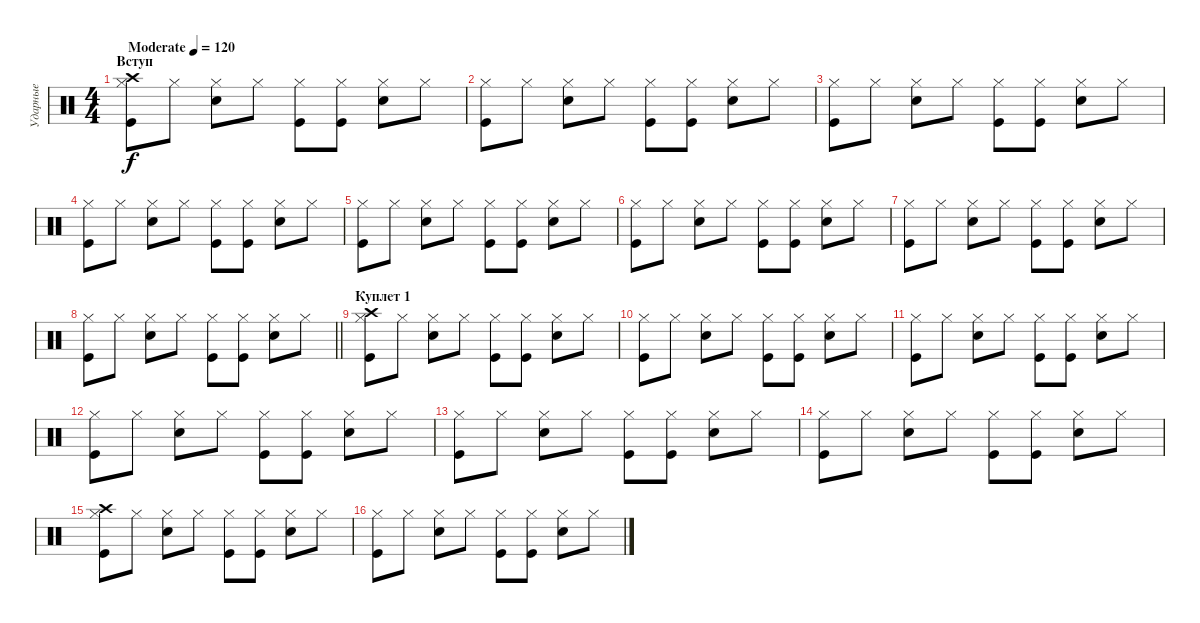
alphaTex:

\track ("Ударные" "Ударные") {instrument percussion}
\staff {score}
\articulation defaults
\ts (4 4)
\section ("" "Вступ")
\tempo (120 "Moderate")
\clef neutral
\ks c
("Hi-Hat (closed)" "Kick (hit)" "Crash high (hit)").8{dy f} "Hi-Hat (closed)".8 ("Hi-Hat (closed)" "Snare (hit) 2").8 "Hi-Hat (closed)".8 ("Hi-Hat (closed)" "Kick (hit)").8 ("Hi-Hat (closed)" "Kick (hit)").8 ("Hi-Hat (closed)" "Snare (hit) 2").8 "Hi-Hat (closed)".8 |
("Hi-Hat (closed)" "Kick (hit)").8 "Hi-Hat (closed)".8 ("Hi-Hat (closed)" "Snare (hit) 2").8 "Hi-Hat (closed)".8 ("Hi-Hat (closed)" "Kick (hit)").8 ("Hi-Hat (closed)" "Kick (hit)").8 ("Hi-Hat (closed)" "Snare (hit) 2").8 "Hi-Hat (closed)".8 |
("Hi-Hat (closed)" "Kick (hit)").8 "Hi-Hat (closed)".8 ("Hi-Hat (closed)" "Snare (hit) 2").8 "Hi-Hat (closed)".8 ("Hi-Hat (closed)" "Kick (hit)").8 ("Hi-Hat (closed)" "Kick (hit)").8 ("Hi-Hat (closed)" "Snare (hit) 2").8 "Hi-Hat (closed)".8 |
("Hi-Hat (closed)" "Kick (hit)").8 "Hi-Hat (closed)".8 ("Hi-Hat (closed)" "Snare (hit) 2").8 "Hi-Hat (closed)".8 ("Hi-Hat (closed)" "Kick (hit)").8 ("Hi-Hat (closed)" "Kick (hit)").8 ("Hi-Hat (closed)" "Snare (hit) 2").8 "Hi-Hat (closed)".8 |
("Hi-Hat (closed)" "Kick (hit)").8 "Hi-Hat (closed)".8 ("Hi-Hat (closed)" "Snare (hit) 2").8 "Hi-Hat (closed)".8 ("Hi-Hat (closed)" "Kick (hit)").8 ("Hi-Hat (closed)" "Kick (hit)").8 ("Hi-Hat (closed)" "Snare (hit) 2").8 "Hi-Hat (closed)".8 |
("Hi-Hat (closed)" "Kick (hit)").8 "Hi-Hat (closed)".8 ("Hi-Hat (closed)" "Snare (hit) 2").8 "Hi-Hat (closed)".8 ("Hi-Hat (closed)" "Kick (hit)").8 ("Hi-Hat (closed)" "Kick (hit)").8 ("Hi-Hat (closed)" "Snare (hit) 2").8 "Hi-Hat (closed)".8 |
("Hi-Hat (closed)" "Kick (hit)").8 "Hi-Hat (closed)".8 ("Hi-Hat (closed)" "Snare (hit) 2").8 "Hi-Hat (closed)".8 ("Hi-Hat (closed)" "Kick (hit)").8 ("Hi-Hat (closed)" "Kick (hit)").8 ("Hi-Hat (closed)" "Snare (hit) 2").8 "Hi-Hat (closed)".8 |
\barLineRight lightlight
("Hi-Hat (closed)" "Kick (hit)").8 "Hi-Hat (closed)".8 ("Hi-Hat (closed)" "Snare (hit) 2").8 "Hi-Hat (closed)".8 ("Hi-Hat (closed)" "Kick (hit)").8 ("Hi-Hat (closed)" "Kick (hit)").8 ("Hi-Hat (closed)" "Snare (hit) 2").8 "Hi-Hat (closed)".8 |
\section ("" "Куплет 1")
("Hi-Hat (closed)" "Kick (hit)" "Crash high (hit)").8 "Hi-Hat (closed)".8 ("Hi-Hat (closed)" "Snare (hit) 2").8 "Hi-Hat (closed)".8 ("Hi-Hat (closed)" "Kick (hit)").8 ("Hi-Hat (closed)" "Kick (hit)").8 ("Hi-Hat (closed)" "Snare (hit) 2").8 "Hi-Hat (closed)".8 |
("Hi-Hat (closed)" "Kick (hit)").8 "Hi-Hat (closed)".8 ("Hi-Hat (closed)" "Snare (hit) 2").8 "Hi-Hat (closed)".8 ("Hi-Hat (closed)" "Kick (hit)").8 ("Hi-Hat (closed)" "Kick (hit)").8 ("Hi-Hat (closed)" "Snare (hit) 2").8 "Hi-Hat (closed)".8 |
("Hi-Hat (closed)" "Kick (hit)").8 "Hi-Hat (closed)".8 ("Hi-Hat (closed)" "Snare (hit) 2").8 "Hi-Hat (closed)".8 ("Hi-Hat (closed)" "Kick (hit)").8 ("Hi-Hat (closed)" "Kick (hit)").8 ("Hi-Hat (closed)" "Snare (hit) 2").8 "Hi-Hat (closed)".8 |
("Hi-Hat (closed)" "Kick (hit)").8 "Hi-Hat (closed)".8 ("Hi-Hat (closed)" "Snare (hit) 2").8 "Hi-Hat (closed)".8 ("Hi-Hat (closed)" "Kick (hit)").8 ("Hi-Hat (closed)" "Kick (hit)").8 ("Hi-Hat (closed)" "Snare (hit) 2").8 "Hi-Hat (closed)".8 |
("Hi-Hat (closed)" "Kick (hit)").8 "Hi-Hat (closed)".8 ("Hi-Hat (closed)" "Snare (hit) 2").8 "Hi-Hat (closed)".8 ("Hi-Hat (closed)" "Kick (hit)").8 ("Hi-Hat (closed)" "Kick (hit)").8 ("Hi-Hat (closed)" "Snare (hit) 2").8 "Hi-Hat (closed)".8 |
("Hi-Hat (closed)" "Kick (hit)").8 "Hi-Hat (closed)".8 ("Hi-Hat (closed)" "Snare (hit) 2").8 "Hi-Hat (closed)".8 ("Hi-Hat (closed)" "Kick (hit)").8 ("Hi-Hat (closed)" "Kick (hit)").8 ("Hi-Hat (closed)" "Snare (hit) 2").8 "Hi-Hat (closed)".8 |
("Hi-Hat (closed)" "Kick (hit)" "Crash high (hit)").8 "Hi-Hat (closed)".8 ("Hi-Hat (closed)" "Snare (hit) 2").8 "Hi-Hat (closed)".8 ("Hi-Hat (closed)" "Kick (hit)").8 ("Hi-Hat (closed)" "Kick (hit)").8 ("Hi-Hat (closed)" "Snare (hit) 2").8 "Hi-Hat (closed)".8 |
("Hi-Hat (closed)" "Kick (hit)").8 "Hi-Hat (closed)".8 ("Hi-Hat (closed)" "Snare (hit) 2").8 "Hi-Hat (closed)".8 ("Hi-Hat (closed)" "Kick (hit)").8 ("Hi-Hat (closed)" "Kick (hit)").8 ("Hi-Hat (closed)" "Snare (hit) 2").8 "Hi-Hat (closed)".8
